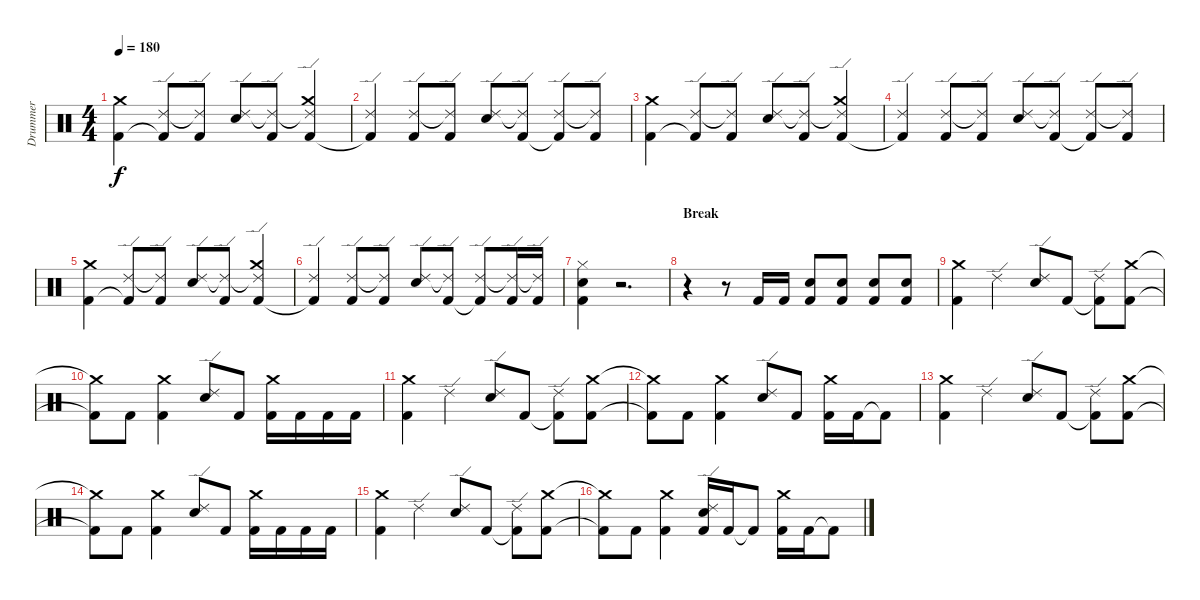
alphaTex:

\track ("Drummer" "Drummer") {instrument percussion}
\staff {score}
\articulation defaults
\ts (4 4)
\tempo 180
\clef neutral
\ks c
("Kick (hit) 2" "Crash medium (hit)").4{dy f} ("Kick (hit) 2"{t} "Ride (edge) 2").8 ("Kick (hit) 2" "Ride (edge) 2"{t}).8 ("Snare (hit) 2" "Ride (edge) 2").8 ("Kick (hit) 2" "Ride (edge) 2"{t}).8 ("Kick (hit) 2" "Ride (edge) 2"{t} "Crash medium (hit)").4 |
("Kick (hit) 2"{t} "Ride (edge) 2").4 ("Kick (hit) 2" "Ride (edge) 2").8 ("Kick (hit) 2" "Ride (edge) 2"{t}).8 ("Snare (hit) 2" "Ride (edge) 2").8 ("Kick (hit) 2" "Ride (edge) 2"{t}).8 ("Kick (hit) 2"{t} "Ride (edge) 2").8 ("Kick (hit) 2" "Ride (edge) 2"{t}).8 |
("Kick (hit) 2" "Crash medium (hit)").4 ("Kick (hit) 2"{t} "Ride (edge) 2").8 ("Kick (hit) 2" "Ride (edge) 2"{t}).8 ("Snare (hit) 2" "Ride (edge) 2").8 ("Kick (hit) 2" "Ride (edge) 2"{t}).8 ("Kick (hit) 2" "Ride (edge) 2"{t} "Crash medium (hit)").4 |
("Kick (hit) 2"{t} "Ride (edge) 2").4 ("Kick (hit) 2" "Ride (edge) 2").8 ("Kick (hit) 2" "Ride (edge) 2"{t}).8 ("Snare (hit) 2" "Ride (edge) 2").8 ("Kick (hit) 2" "Ride (edge) 2"{t}).8 ("Kick (hit) 2"{t} "Ride (edge) 2").8 ("Kick (hit) 2" "Ride (edge) 2"{t}).8 |
("Kick (hit) 2" "Crash medium (hit)").4 ("Kick (hit) 2"{t} "Ride (edge) 2").8 ("Kick (hit) 2" "Ride (edge) 2"{t}).8 ("Snare (hit) 2" "Ride (edge) 2").8 ("Kick (hit) 2" "Ride (edge) 2"{t}).8 ("Kick (hit) 2" "Ride (edge) 2"{t} "Crash medium (hit)").4 |
("Kick (hit) 2"{t} "Ride (edge) 2").4 ("Kick (hit) 2" "Ride (edge) 2").8 ("Kick (hit) 2" "Ride (edge) 2"{t}).8 ("Snare (hit) 2" "Ride (edge) 2").8 ("Kick (hit) 2" "Ride (edge) 2"{t}).8 ("Kick (hit) 2"{t} "Ride (edge) 2").8 ("Kick (hit) 2" "Ride (edge) 2"{t}).16 ("Kick (hit) 2" "Ride (edge) 2"{t}).16 |
("Kick (hit) 2" "Electric Snare (hit)" "Hi-Hat (closed)").4 r.2{d} |
\section ("" "Break")
r.4 r.8 "Kick (hit) 2".16 "Kick (hit) 2".16 ("Kick (hit) 2" "Electric Snare (hit)").8 ("Kick (hit) 2" "Electric Snare (hit)").8 ("Kick (hit) 2" "Electric Snare (hit)").8 ("Kick (hit) 2" "Electric Snare (hit)").8 |
("Kick (hit) 2" "Crash medium (hit)").4 "Ride (edge) 2".4 ("Snare (hit) 2" "Ride (edge) 2").8 "Kick (hit) 2".8 ("Kick (hit) 2"{t} "Ride (edge) 2").8 ("Kick (hit) 2" "Crash medium (hit)").8 |
("Kick (hit) 2"{t} "Crash medium (hit)"{t}).8 "Kick (hit) 2".8 ("Kick (hit) 2" "Crash medium (hit)").4 ("Snare (hit) 2" "Ride (edge) 2").8 "Kick (hit) 2".8 ("Kick (hit) 2" "Crash medium (hit)").16 "Kick (hit) 2".16 "Kick (hit) 2".16 "Kick (hit) 2".16 |
("Kick (hit) 2" "Crash medium (hit)").4 "Ride (edge) 2".4 ("Snare (hit) 2" "Ride (edge) 2").8 "Kick (hit) 2".8 ("Kick (hit) 2"{t} "Ride (edge) 2").8 ("Kick (hit) 2" "Crash medium (hit)").8 |
("Kick (hit) 2"{t} "Crash medium (hit)"{t}).8 "Kick (hit) 2".8 ("Kick (hit) 2" "Crash medium (hit)").4 ("Snare (hit) 2" "Ride (edge) 2").8 "Kick (hit) 2".8 ("Kick (hit) 2" "Crash medium (hit)").16 "Kick (hit) 2".16 "Kick (hit) 2"{t}.8 |
("Kick (hit) 2" "Crash medium (hit)").4 "Ride (edge) 2".4 ("Snare (hit) 2" "Ride (edge) 2").8 "Kick (hit) 2".8 ("Kick (hit) 2"{t} "Ride (edge) 2").8 ("Kick (hit) 2" "Crash medium (hit)").8 |
("Kick (hit) 2"{t} "Crash medium (hit)"{t}).8 "Kick (hit) 2".8 ("Kick (hit) 2" "Crash medium (hit)").4 ("Snare (hit) 2" "Ride (edge) 2").8 "Kick (hit) 2".8 ("Kick (hit) 2" "Crash medium (hit)").16 "Kick (hit) 2".16 "Kick (hit) 2".16 "Kick (hit) 2".16 |
("Kick (hit) 2" "Crash medium (hit)").4 "Ride (edge) 2".4 ("Snare (hit) 2" "Ride (edge) 2").8 "Kick (hit) 2".8 ("Kick (hit) 2"{t} "Ride (edge) 2").8 ("Kick (hit) 2" "Crash medium (hit)").8 |
("Kick (hit) 2"{t} "Crash medium (hit)"{t}).8 "Kick (hit) 2".8 ("Kick (hit) 2" "Crash medium (hit)").4 ("Kick (hit) 2" "Snare (hit) 2" "Ride (edge) 2").16 "Kick (hit) 2".16 "Kick (hit) 2"{t}.8 ("Kick (hit) 2" "Crash medium (hit)").16 "Kick (hit) 2".16 "Kick (hit) 2"{t}.8
